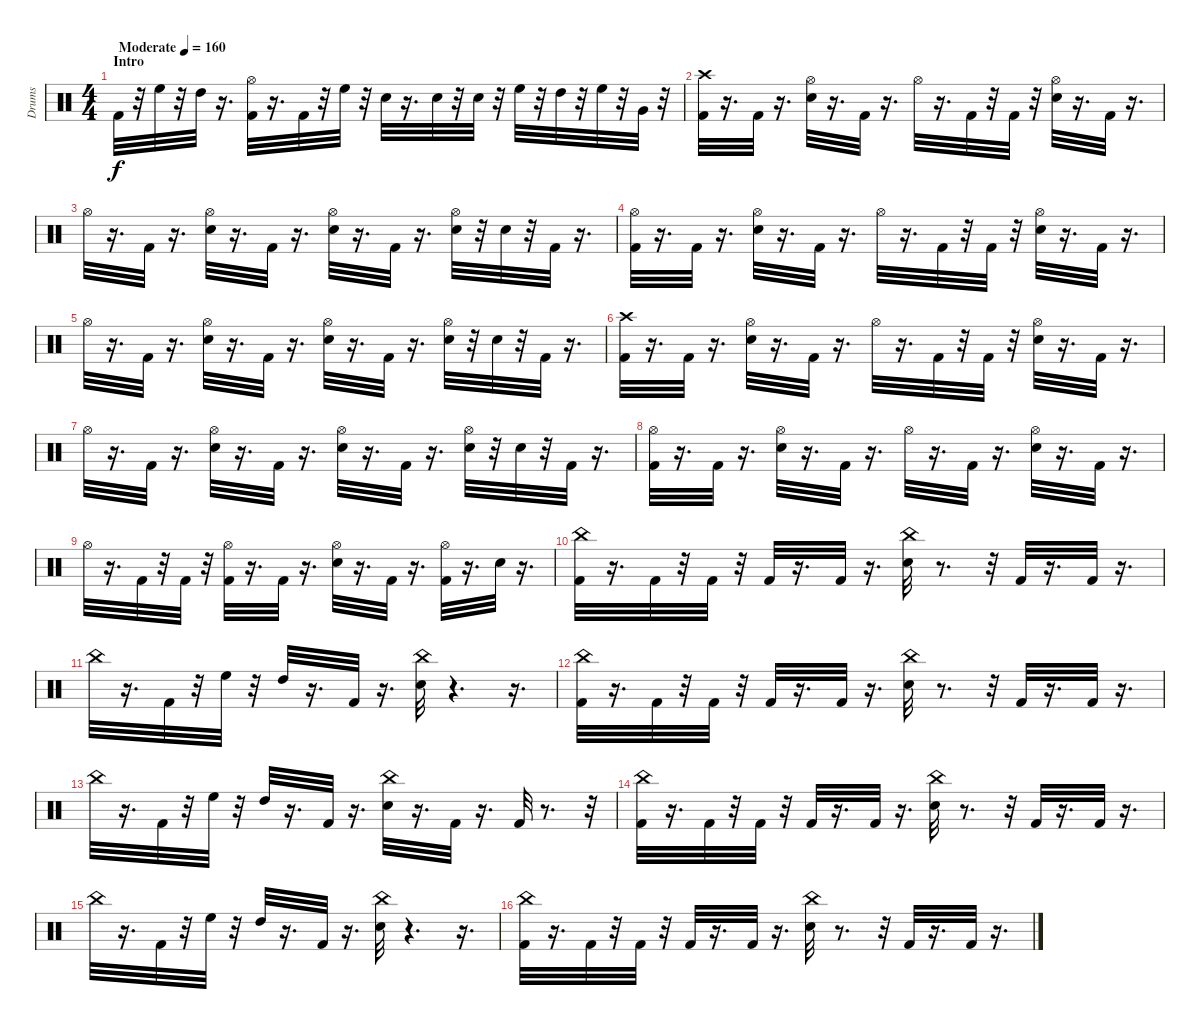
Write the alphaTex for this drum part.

\track ("Drums" "Drums") {instrument percussion}
\staff {score}
\articulation defaults
\ts (4 4)
\section ("" "Intro")
\tempo (160 "Moderate")
\clef neutral
\ks c "Kick (hit) 2".32{dy f}
r.32 "High Floor Tom (hit)".32 r.32 "High Tom (hit)".32 r.16{d} ("Kick (hit) 2" "Hi-Hat (open)").32 r.16{d} "Kick (hit) 2".32 r.32 "High Floor Tom (hit)".32 r.32 "Snare (hit) 2".32 r.16{d} "Snare (hit) 2".32 r.32 "Snare (hit) 2".32 r.32 "High Floor Tom (hit)".32 r.32 "High Tom (hit)".32 r.32 "High Floor Tom (hit)".32 r.32 "Very Low Tom (hit)".32 r.32 |
("Kick (hit) 2" "Crash high (hit)").32 r.16{d} "Kick (hit) 2".32 r.16{d} ("Snare (hit) 2" "Hi-Hat (open)").32 r.16{d} "Kick (hit) 2".32 r.16{d} "Hi-Hat (open)".32 r.16{d} "Kick (hit) 2".32 r.32 "Kick (hit) 2".32 r.32 ("Snare (hit) 2" "Hi-Hat (open)").32 r.16{d} "Kick (hit) 2".32 r.16{d} |
"Hi-Hat (open)".32 r.16{d} "Kick (hit) 2".32 r.16{d} ("Snare (hit) 2" "Hi-Hat (open)").32 r.16{d} "Kick (hit) 2".32 r.16{d} ("Snare (hit) 2" "Hi-Hat (open)").32 r.16{d} "Kick (hit) 2".32 r.16{d} ("Snare (hit) 2" "Hi-Hat (open)").32 r.32 "Snare (hit) 2".32 r.32 "Kick (hit) 2".32 r.16{d} |
("Kick (hit) 2" "Hi-Hat (open)").32 r.16{d} "Kick (hit) 2".32 r.16{d} ("Snare (hit) 2" "Hi-Hat (open)").32 r.16{d} "Kick (hit) 2".32 r.16{d} "Hi-Hat (open)".32 r.16{d} "Kick (hit) 2".32 r.32 "Kick (hit) 2".32 r.32 ("Snare (hit) 2" "Hi-Hat (open)").32 r.16{d} "Kick (hit) 2".32 r.16{d} |
"Hi-Hat (open)".32 r.16{d} "Kick (hit) 2".32 r.16{d} ("Snare (hit) 2" "Hi-Hat (open)").32 r.16{d} "Kick (hit) 2".32 r.16{d} ("Snare (hit) 2" "Hi-Hat (open)").32 r.16{d} "Kick (hit) 2".32 r.16{d} ("Snare (hit) 2" "Hi-Hat (open)").32 r.32 "Snare (hit) 2".32 r.32 "Kick (hit) 2".32 r.16{d} |
("Kick (hit) 2" "Crash high (hit)").32 r.16{d} "Kick (hit) 2".32 r.16{d} ("Snare (hit) 2" "Hi-Hat (open)").32 r.16{d} "Kick (hit) 2".32 r.16{d} "Hi-Hat (open)".32 r.16{d} "Kick (hit) 2".32 r.32 "Kick (hit) 2".32 r.32 ("Snare (hit) 2" "Hi-Hat (open)").32 r.16{d} "Kick (hit) 2".32 r.16{d} |
"Hi-Hat (open)".32 r.16{d} "Kick (hit) 2".32 r.16{d} ("Snare (hit) 2" "Hi-Hat (open)").32 r.16{d} "Kick (hit) 2".32 r.16{d} ("Snare (hit) 2" "Hi-Hat (open)").32 r.16{d} "Kick (hit) 2".32 r.16{d} ("Snare (hit) 2" "Hi-Hat (open)").32 r.32 "Snare (hit) 2".32 r.32 "Kick (hit) 2".32 r.16{d} |
("Kick (hit) 2" "Hi-Hat (open)").32 r.16{d} "Kick (hit) 2".32 r.16{d} ("Snare (hit) 2" "Hi-Hat (open)").32 r.16{d} "Kick (hit) 2".32 r.16{d} "Hi-Hat (open)".32 r.16{d} "Kick (hit) 2".32 r.16{d} ("Snare (hit) 2" "Hi-Hat (open)").32 r.16{d} "Kick (hit) 2".32 r.16{d} |
"Hi-Hat (open)".32 r.16{d} "Kick (hit) 2".32 r.32 "Kick (hit) 2".32 r.32 ("Kick (hit) 2" "Hi-Hat (open)").32 r.16{d} "Kick (hit) 2".32 r.16{d} ("Snare (hit) 2" "Hi-Hat (open)").32 r.16{d} "Kick (hit) 2".32 r.16{d} ("Kick (hit) 2" "Hi-Hat (open)").32 r.16{d} "Snare (hit) 2".32 r.16{d} |
("Kick (hit) 2" "China (hit)").32 r.16{d} "Kick (hit) 2".32 r.32 "Kick (hit) 2".32 r.32 "Kick (hit) 2".32 r.16{d} "Kick (hit) 2".32 r.16{d} ("Snare (hit) 2" "China (hit)").32 r.8{d} r.32 "Kick (hit) 2".32 r.16{d} "Kick (hit) 2".32 r.16{d} |
"China (hit)".32 r.16{d} "Kick (hit) 2".32 r.32 "High Floor Tom (hit)".32 r.32 "High Tom (hit)".32 r.16{d} "Kick (hit) 2".32 r.16{d} ("Snare (hit) 2" "China (hit)").32 r.4{d} r.16{d} |
("Kick (hit) 2" "China (hit)").32 r.16{d} "Kick (hit) 2".32 r.32 "Kick (hit) 2".32 r.32 "Kick (hit) 2".32 r.16{d} "Kick (hit) 2".32 r.16{d} ("Snare (hit) 2" "China (hit)").32 r.8{d} r.32 "Kick (hit) 2".32 r.16{d} "Kick (hit) 2".32 r.16{d} |
"China (hit)".32 r.16{d} "Kick (hit) 2".32 r.32 "High Floor Tom (hit)".32 r.32 "High Tom (hit)".32 r.16{d} "Kick (hit) 2".32 r.16{d} ("Snare (hit) 2" "China (hit)").32 r.16{d} "Kick (hit) 2".32 r.16{d} "Kick (hit) 2".32 r.8{d} r.32 |
("Kick (hit) 2" "China (hit)").32 r.16{d} "Kick (hit) 2".32 r.32 "Kick (hit) 2".32 r.32 "Kick (hit) 2".32 r.16{d} "Kick (hit) 2".32 r.16{d} ("Snare (hit) 2" "China (hit)").32 r.8{d} r.32 "Kick (hit) 2".32 r.16{d} "Kick (hit) 2".32 r.16{d} |
"China (hit)".32 r.16{d} "Kick (hit) 2".32 r.32 "High Floor Tom (hit)".32 r.32 "High Tom (hit)".32 r.16{d} "Kick (hit) 2".32 r.16{d} ("Snare (hit) 2" "China (hit)").32 r.4{d} r.16{d} |
("Kick (hit) 2" "China (hit)").32 r.16{d} "Kick (hit) 2".32 r.32 "Kick (hit) 2".32 r.32 "Kick (hit) 2".32 r.16{d} "Kick (hit) 2".32 r.16{d} ("Snare (hit) 2" "China (hit)").32 r.8{d} r.32 "Kick (hit) 2".32 r.16{d} "Kick (hit) 2".32 r.16{d}
